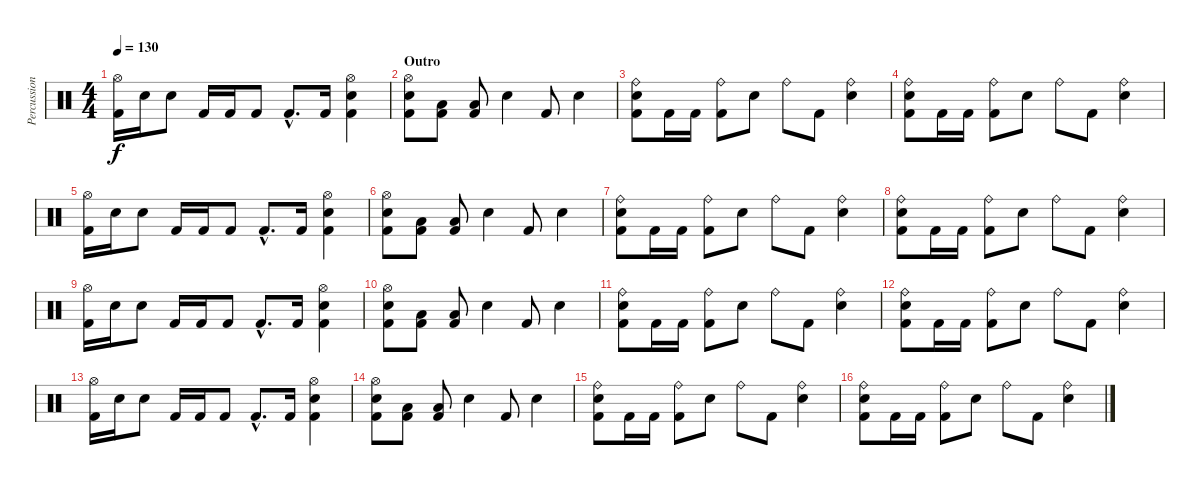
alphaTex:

\track ("Percussion" "Percussion") {instrument percussion}
\staff {score}
\articulation defaults
\ts (4 4)
\tempo 130
\clef neutral
\ks c
("Hi-Hat (open)" "Kick (hit) 2").16{dy f} "Electric Snare (hit)".16 "Electric Snare (hit)".8 "Kick (hit) 2".16 "Kick (hit) 2".16 "Kick (hit) 2".8 "Kick (hit) 2"{hac}.8{d} "Kick (hit) 2".16 ("Hi-Hat (open)" "Kick (hit) 2" "Electric Snare (hit)").4 |
\section ("" "Outro")
("Hi-Hat (open)" "Electric Snare (hit)" "Kick (hit) 2").8 ("Low Floor Tom (hit)" "Kick (hit) 2").8 ("Low Floor Tom (hit)" "Kick (hit) 2").8 "Electric Snare (hit)".4 "Kick (hit) 2".8 "Electric Snare (hit)".4 |
("Ride (bell)" "Electric Snare (hit)" "Kick (hit) 2").8 "Kick (hit) 2".16 "Kick (hit) 2".16 ("Ride (bell)" "Kick (hit) 2").8 "Electric Snare (hit)".8 "Ride (bell)".8 "Kick (hit) 2".8 ("Ride (bell)" "Electric Snare (hit)").4 |
("Ride (bell)" "Electric Snare (hit)" "Kick (hit) 2").8 "Kick (hit) 2".16 "Kick (hit) 2".16 ("Ride (bell)" "Kick (hit) 2").8 "Electric Snare (hit)".8 "Ride (bell)".8 "Kick (hit) 2".8 ("Ride (bell)" "Electric Snare (hit)").4 |
("Hi-Hat (open)" "Kick (hit) 2").16 "Electric Snare (hit)".16 "Electric Snare (hit)".8 "Kick (hit) 2".16 "Kick (hit) 2".16 "Kick (hit) 2".8 "Kick (hit) 2"{hac}.8{d} "Kick (hit) 2".16 ("Hi-Hat (open)" "Kick (hit) 2" "Electric Snare (hit)").4 |
("Hi-Hat (open)" "Electric Snare (hit)" "Kick (hit) 2").8 ("Low Floor Tom (hit)" "Kick (hit) 2").8 ("Low Floor Tom (hit)" "Kick (hit) 2").8 "Electric Snare (hit)".4 "Kick (hit) 2".8 "Electric Snare (hit)".4 |
("Ride (bell)" "Electric Snare (hit)" "Kick (hit) 2").8 "Kick (hit) 2".16 "Kick (hit) 2".16 ("Ride (bell)" "Kick (hit) 2").8 "Electric Snare (hit)".8 "Ride (bell)".8 "Kick (hit) 2".8 ("Ride (bell)" "Electric Snare (hit)").4 |
("Ride (bell)" "Electric Snare (hit)" "Kick (hit) 2").8 "Kick (hit) 2".16 "Kick (hit) 2".16 ("Ride (bell)" "Kick (hit) 2").8 "Electric Snare (hit)".8 "Ride (bell)".8 "Kick (hit) 2".8 ("Ride (bell)" "Electric Snare (hit)").4 |
("Hi-Hat (open)" "Kick (hit) 2").16 "Electric Snare (hit)".16 "Electric Snare (hit)".8 "Kick (hit) 2".16 "Kick (hit) 2".16 "Kick (hit) 2".8 "Kick (hit) 2"{hac}.8{d} "Kick (hit) 2".16 ("Hi-Hat (open)" "Kick (hit) 2" "Electric Snare (hit)").4 |
("Hi-Hat (open)" "Electric Snare (hit)" "Kick (hit) 2").8 ("Low Floor Tom (hit)" "Kick (hit) 2").8 ("Low Floor Tom (hit)" "Kick (hit) 2").8 "Electric Snare (hit)".4 "Kick (hit) 2".8 "Electric Snare (hit)".4 |
("Ride (bell)" "Electric Snare (hit)" "Kick (hit) 2").8 "Kick (hit) 2".16 "Kick (hit) 2".16 ("Ride (bell)" "Kick (hit) 2").8 "Electric Snare (hit)".8 "Ride (bell)".8 "Kick (hit) 2".8 ("Ride (bell)" "Electric Snare (hit)").4 |
("Ride (bell)" "Electric Snare (hit)" "Kick (hit) 2").8 "Kick (hit) 2".16 "Kick (hit) 2".16 ("Ride (bell)" "Kick (hit) 2").8 "Electric Snare (hit)".8 "Ride (bell)".8 "Kick (hit) 2".8 ("Ride (bell)" "Electric Snare (hit)").4 |
("Hi-Hat (open)" "Kick (hit) 2").16 "Electric Snare (hit)".16 "Electric Snare (hit)".8 "Kick (hit) 2".16 "Kick (hit) 2".16 "Kick (hit) 2".8 "Kick (hit) 2"{hac}.8{d} "Kick (hit) 2".16 ("Hi-Hat (open)" "Kick (hit) 2" "Electric Snare (hit)").4 |
("Hi-Hat (open)" "Electric Snare (hit)" "Kick (hit) 2").8 ("Low Floor Tom (hit)" "Kick (hit) 2").8 ("Low Floor Tom (hit)" "Kick (hit) 2").8 "Electric Snare (hit)".4 "Kick (hit) 2".8 "Electric Snare (hit)".4 |
("Ride (bell)" "Electric Snare (hit)" "Kick (hit) 2").8 "Kick (hit) 2".16 "Kick (hit) 2".16 ("Ride (bell)" "Kick (hit) 2").8 "Electric Snare (hit)".8 "Ride (bell)".8 "Kick (hit) 2".8 ("Ride (bell)" "Electric Snare (hit)").4 |
("Ride (bell)" "Electric Snare (hit)" "Kick (hit) 2").8 "Kick (hit) 2".16 "Kick (hit) 2".16 ("Ride (bell)" "Kick (hit) 2").8 "Electric Snare (hit)".8 "Ride (bell)".8 "Kick (hit) 2".8 ("Ride (bell)" "Electric Snare (hit)").4
